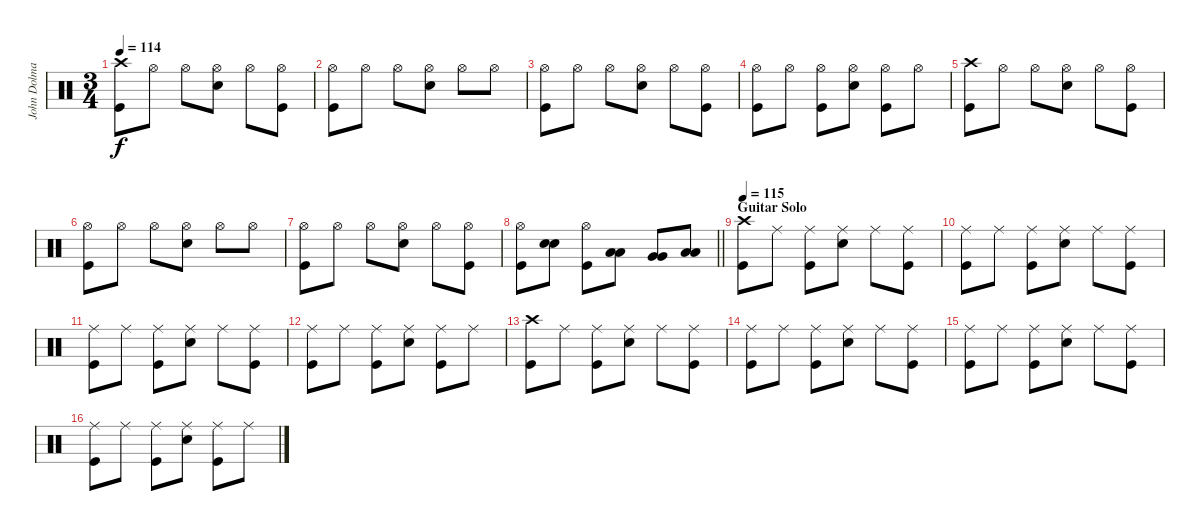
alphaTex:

\track ("John Dolmayan - Drums" "John Dolma") {instrument percussion}
\staff
\articulation defaults
\ts (3 4)
\tempo 114
\clef neutral
\ks c
("Crash high (hit)" "Kick (hit)").8{dy f} "Hi-Hat (open)".8 "Hi-Hat (open)".8 ("Hi-Hat (open)" "Snare (hit) 2").8 "Hi-Hat (open)".8 ("Hi-Hat (open)" "Kick (hit)").8 |
("Hi-Hat (open)" "Kick (hit)").8 "Hi-Hat (open)".8 "Hi-Hat (open)".8 ("Hi-Hat (open)" "Snare (hit) 2").8 "Hi-Hat (open)".8 "Hi-Hat (open)".8 |
("Hi-Hat (open)" "Kick (hit)").8 "Hi-Hat (open)".8 "Hi-Hat (open)".8 ("Hi-Hat (open)" "Snare (hit) 2").8 "Hi-Hat (open)".8 ("Hi-Hat (open)" "Kick (hit)").8 |
("Hi-Hat (open)" "Kick (hit)").8 "Hi-Hat (open)".8 ("Hi-Hat (open)" "Kick (hit)").8 ("Hi-Hat (open)" "Snare (hit) 2").8 ("Hi-Hat (open)" "Kick (hit)").8 "Hi-Hat (open)".8 |
("Crash high (hit)" "Kick (hit)").8 "Hi-Hat (open)".8 "Hi-Hat (open)".8 ("Hi-Hat (open)" "Snare (hit) 2").8 "Hi-Hat (open)".8 ("Hi-Hat (open)" "Kick (hit)").8 |
("Hi-Hat (open)" "Kick (hit)").8 "Hi-Hat (open)".8 "Hi-Hat (open)".8 ("Hi-Hat (open)" "Snare (hit) 2").8 "Hi-Hat (open)".8 "Hi-Hat (open)".8 |
("Hi-Hat (open)" "Kick (hit)").8 "Hi-Hat (open)".8 "Hi-Hat (open)".8 ("Hi-Hat (open)" "Snare (hit) 2").8 "Hi-Hat (open)".8 ("Hi-Hat (open)" "Kick (hit)").8 |
\barLineRight lightlight
("Hi-Hat (open)" "Kick (hit)").8 ("Snare (hit) 2" "Snare (hit) 2").8 ("Hi-Hat (open)" "Kick (hit)").8 ("Low Tom (hit)" "Low Tom (hit)").8 ("Very Low Tom (hit)" "Very Low Tom (hit)").8 ("Low Floor Tom (hit)" "Low Floor Tom (hit)").8 |
\section ("" "Guitar Solo")
\tempo 115
("Crash high (hit)" "Kick (hit)").8 "Ride (middle)".8 ("Ride (middle)" "Kick (hit)").8 ("Ride (middle)" "Snare (hit) 2").8 "Ride (middle)".8 ("Ride (middle)" "Kick (hit)").8 |
("Ride (middle)" "Kick (hit)").8 "Ride (middle)".8 ("Ride (middle)" "Kick (hit)").8 ("Ride (middle)" "Snare (hit) 2").8 "Ride (middle)".8 ("Ride (middle)" "Kick (hit)").8 |
("Ride (middle)" "Kick (hit)").8 "Ride (middle)".8 ("Ride (middle)" "Kick (hit)").8 ("Ride (middle)" "Snare (hit) 2").8 "Ride (middle)".8 ("Ride (middle)" "Kick (hit)").8 |
("Ride (middle)" "Kick (hit)").8 "Ride (middle)".8 ("Ride (middle)" "Kick (hit)").8 ("Ride (middle)" "Snare (hit) 2").8 ("Ride (middle)" "Kick (hit)").8 "Ride (middle)".8 |
("Crash high (hit)" "Kick (hit)").8 "Ride (middle)".8 ("Ride (middle)" "Kick (hit)").8 ("Ride (middle)" "Snare (hit) 2").8 "Ride (middle)".8 ("Ride (middle)" "Kick (hit)").8 |
("Ride (middle)" "Kick (hit)").8 "Ride (middle)".8 ("Ride (middle)" "Kick (hit)").8 ("Ride (middle)" "Snare (hit) 2").8 "Ride (middle)".8 ("Ride (middle)" "Kick (hit)").8 |
("Ride (middle)" "Kick (hit)").8 "Ride (middle)".8 ("Ride (middle)" "Kick (hit)").8 ("Ride (middle)" "Snare (hit) 2").8 "Ride (middle)".8 ("Ride (middle)" "Kick (hit)").8 |
("Ride (middle)" "Kick (hit)").8 "Ride (middle)".8 ("Ride (middle)" "Kick (hit)").8 ("Ride (middle)" "Snare (hit) 2").8 ("Ride (middle)" "Kick (hit)").8 "Ride (middle)".8
